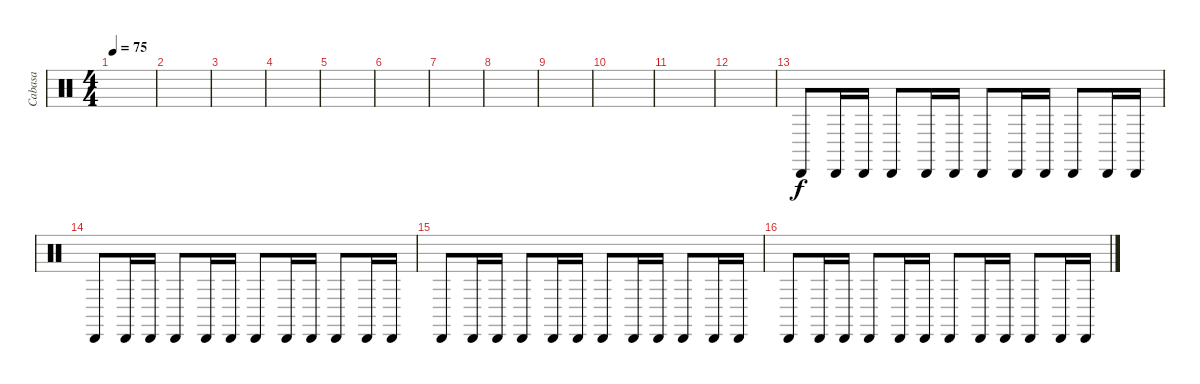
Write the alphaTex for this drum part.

\track ("Cabasa" "Cabasa") {instrument percussion}
\staff {score}
\articulation defaults
\ts (4 4)
\tempo 75
\clef neutral
\ks c
|
|
|
|
|
|
|
|
|
|
|
|
"Cabasa (hit)".8 "Cabasa (hit)".16 "Cabasa (hit)".16 "Cabasa (hit)".8 "Cabasa (hit)".16 "Cabasa (hit)".16 "Cabasa (hit)".8 "Cabasa (hit)".16 "Cabasa (hit)".16 "Cabasa (hit)".8 "Cabasa (hit)".16 "Cabasa (hit)".16 |
"Cabasa (hit)".8 "Cabasa (hit)".16 "Cabasa (hit)".16 "Cabasa (hit)".8 "Cabasa (hit)".16 "Cabasa (hit)".16 "Cabasa (hit)".8 "Cabasa (hit)".16 "Cabasa (hit)".16 "Cabasa (hit)".8 "Cabasa (hit)".16 "Cabasa (hit)".16 |
"Cabasa (hit)".8 "Cabasa (hit)".16 "Cabasa (hit)".16 "Cabasa (hit)".8 "Cabasa (hit)".16 "Cabasa (hit)".16 "Cabasa (hit)".8 "Cabasa (hit)".16 "Cabasa (hit)".16 "Cabasa (hit)".8 "Cabasa (hit)".16 "Cabasa (hit)".16 |
"Cabasa (hit)".8 "Cabasa (hit)".16 "Cabasa (hit)".16 "Cabasa (hit)".8 "Cabasa (hit)".16 "Cabasa (hit)".16 "Cabasa (hit)".8 "Cabasa (hit)".16 "Cabasa (hit)".16 "Cabasa (hit)".8 "Cabasa (hit)".16 "Cabasa (hit)".16
